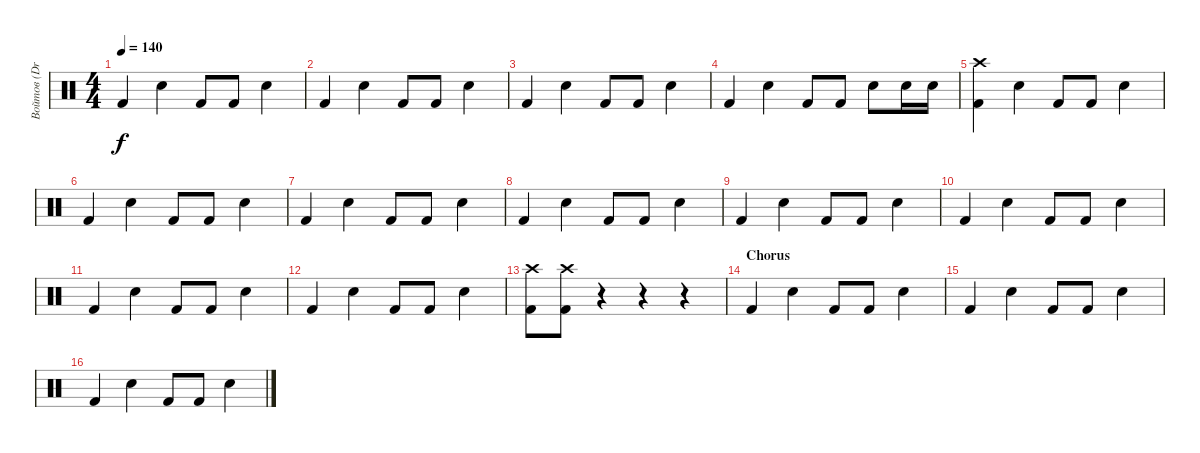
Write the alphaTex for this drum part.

\track ("Войтов (Drums)" "Войтов (Dr") {instrument percussion}
\staff {score}
\articulation defaults
\ts (4 4)
\tempo 140
\clef neutral
\ks c "Kick (hit) 2".4{dy f} "Electric Snare (hit)".4 "Kick (hit) 2".8 "Kick (hit) 2".8 "Electric Snare (hit)".4
|
"Kick (hit) 2".4 "Electric Snare (hit)".4 "Kick (hit) 2".8 "Kick (hit) 2".8 "Electric Snare (hit)".4 |
"Kick (hit) 2".4 "Electric Snare (hit)".4 "Kick (hit) 2".8 "Kick (hit) 2".8 "Electric Snare (hit)".4 |
"Kick (hit) 2".4 "Electric Snare (hit)".4 "Kick (hit) 2".8 "Kick (hit) 2".8 "Electric Snare (hit)".8 "Electric Snare (hit)".16 "Electric Snare (hit)".16 |
("Kick (hit) 2" "Crash high (hit)").4 "Electric Snare (hit)".4 "Kick (hit) 2".8 "Kick (hit) 2".8 "Electric Snare (hit)".4 |
"Kick (hit) 2".4 "Electric Snare (hit)".4 "Kick (hit) 2".8 "Kick (hit) 2".8 "Electric Snare (hit)".4 |
"Kick (hit) 2".4 "Electric Snare (hit)".4 "Kick (hit) 2".8 "Kick (hit) 2".8 "Electric Snare (hit)".4 |
"Kick (hit) 2".4 "Electric Snare (hit)".4 "Kick (hit) 2".8 "Kick (hit) 2".8 "Electric Snare (hit)".4 |
"Kick (hit) 2".4 "Electric Snare (hit)".4 "Kick (hit) 2".8 "Kick (hit) 2".8 "Electric Snare (hit)".4 |
"Kick (hit) 2".4 "Electric Snare (hit)".4 "Kick (hit) 2".8 "Kick (hit) 2".8 "Electric Snare (hit)".4 |
"Kick (hit) 2".4 "Electric Snare (hit)".4 "Kick (hit) 2".8 "Kick (hit) 2".8 "Electric Snare (hit)".4 |
"Kick (hit) 2".4 "Electric Snare (hit)".4 "Kick (hit) 2".8 "Kick (hit) 2".8 "Electric Snare (hit)".4 |
("Kick (hit) 2" "Crash high (hit)").8 ("Kick (hit) 2" "Crash high (hit)").8 r.4 r.4 r.4 |
\section ("" "Chorus")
"Kick (hit) 2".4 "Electric Snare (hit)".4 "Kick (hit) 2".8 "Kick (hit) 2".8 "Electric Snare (hit)".4 |
"Kick (hit) 2".4 "Electric Snare (hit)".4 "Kick (hit) 2".8 "Kick (hit) 2".8 "Electric Snare (hit)".4 |
"Kick (hit) 2".4 "Electric Snare (hit)".4 "Kick (hit) 2".8 "Kick (hit) 2".8 "Electric Snare (hit)".4
